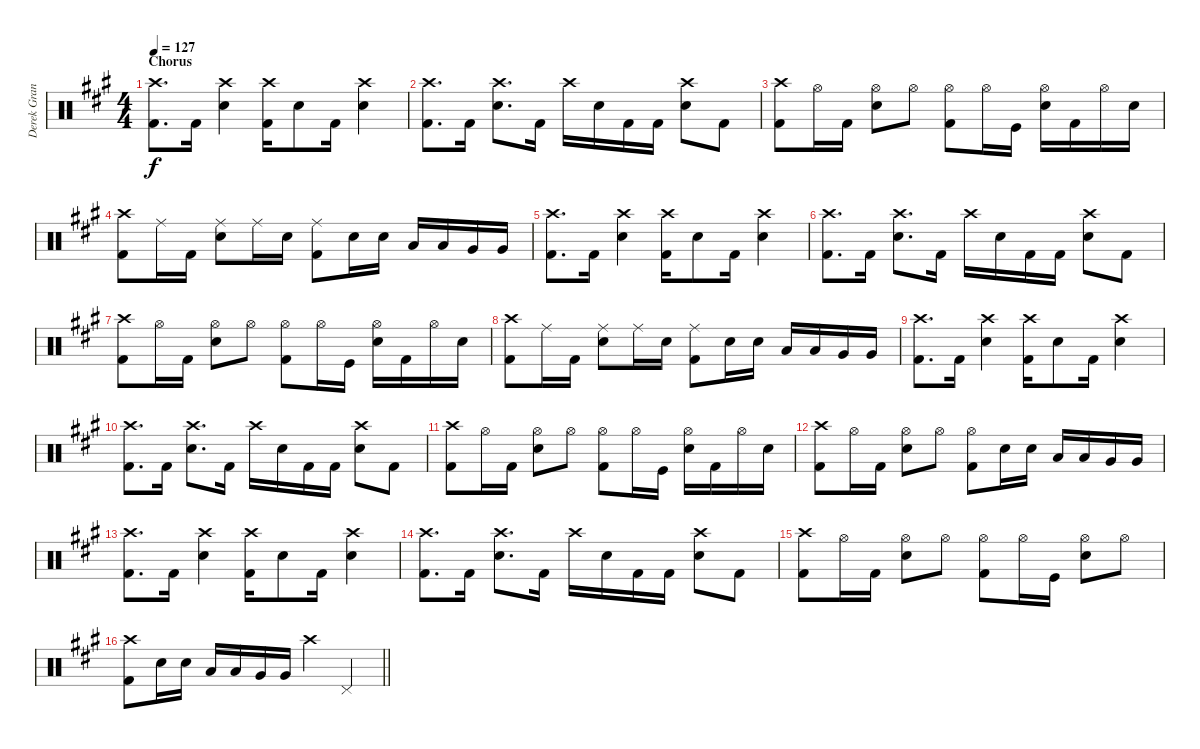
\track ("Derek Grant - Drums" "Derek Gran") {instrument percussion}
\staff {score}
\articulation defaults
\ts (4 4)
\section ("" "Chorus")
\tempo 127
\clef neutral
\ks a
("Crash high (hit)" "Kick (hit) 2").8{d dy f} "Kick (hit) 2".16 ("Snare (hit) 2" "Crash high (hit)").4 ("Crash high (hit)" "Kick (hit) 2").16 "Snare (hit) 2".8 "Kick (hit) 2".16 ("Snare (hit) 2" "Crash high (hit)").4 |
("Crash high (hit)" "Kick (hit) 2").8{d} "Kick (hit) 2".16 ("Snare (hit) 2" "Crash high (hit)").8{d} "Kick (hit) 2".16 "Crash high (hit)".16 "Snare (hit) 2".16 "Kick (hit) 2".16 "Kick (hit) 2".16 ("Snare (hit) 2" "Crash high (hit)").8 "Kick (hit) 2".8 |
("Crash high (hit)" "Kick (hit) 2").8 "Hi-Hat (open)".16 "Kick (hit) 2".16 ("Snare (hit) 2" "Hi-Hat (open)").8 "Hi-Hat (open)".8 ("Hi-Hat (open)" "Kick (hit) 2").8 "Hi-Hat (open)".16 "Kick (hit)".16 ("Hi-Hat (open)" "Snare (hit) 2").16 "Kick (hit) 2".16 "Hi-Hat (open)".16 "Snare (hit) 2".16 |
("Crash high (hit)" "Kick (hit) 2").8 "Ride (middle)".16 "Kick (hit) 2".16 ("Snare (hit) 2" "Ride (middle)").8 "Ride (middle)".16 "Snare (hit) 2".16 ("Ride (middle)" "Kick (hit) 2").8 "Snare (hit) 2".16 "Snare (hit) 2".16 "Low Tom (hit)".16 "Low Tom (hit)".16 "Very Low Tom (hit)".16 "Very Low Tom (hit)".16 |
("Crash high (hit)" "Kick (hit) 2").8{d} "Kick (hit) 2".16 ("Snare (hit) 2" "Crash high (hit)").4 ("Crash high (hit)" "Kick (hit) 2").16 "Snare (hit) 2".8 "Kick (hit) 2".16 ("Snare (hit) 2" "Crash high (hit)").4 |
("Crash high (hit)" "Kick (hit) 2").8{d} "Kick (hit) 2".16 ("Snare (hit) 2" "Crash high (hit)").8{d} "Kick (hit) 2".16 "Crash high (hit)".16 "Snare (hit) 2".16 "Kick (hit) 2".16 "Kick (hit) 2".16 ("Snare (hit) 2" "Crash high (hit)").8 "Kick (hit) 2".8 |
("Crash high (hit)" "Kick (hit) 2").8 "Hi-Hat (open)".16 "Kick (hit) 2".16 ("Snare (hit) 2" "Hi-Hat (open)").8 "Hi-Hat (open)".8 ("Hi-Hat (open)" "Kick (hit) 2").8 "Hi-Hat (open)".16 "Kick (hit)".16 ("Hi-Hat (open)" "Snare (hit) 2").16 "Kick (hit) 2".16 "Hi-Hat (open)".16 "Snare (hit) 2".16 |
("Crash high (hit)" "Kick (hit) 2").8 "Ride (middle)".16 "Kick (hit) 2".16 ("Snare (hit) 2" "Ride (middle)").8 "Ride (middle)".16 "Snare (hit) 2".16 ("Ride (middle)" "Kick (hit) 2").8 "Snare (hit) 2".16 "Snare (hit) 2".16 "Low Tom (hit)".16 "Low Tom (hit)".16 "Very Low Tom (hit)".16 "Very Low Tom (hit)".16 |
("Crash high (hit)" "Kick (hit) 2").8{d} "Kick (hit) 2".16 ("Snare (hit) 2" "Crash high (hit)").4 ("Crash high (hit)" "Kick (hit) 2").16 "Snare (hit) 2".8 "Kick (hit) 2".16 ("Snare (hit) 2" "Crash high (hit)").4 |
("Crash high (hit)" "Kick (hit) 2").8{d} "Kick (hit) 2".16 ("Snare (hit) 2" "Crash high (hit)").8{d} "Kick (hit) 2".16 "Crash high (hit)".16 "Snare (hit) 2".16 "Kick (hit) 2".16 "Kick (hit) 2".16 ("Snare (hit) 2" "Crash high (hit)").8 "Kick (hit) 2".8 |
("Crash high (hit)" "Kick (hit) 2").8 "Hi-Hat (open)".16 "Kick (hit) 2".16 ("Snare (hit) 2" "Hi-Hat (open)").8 "Hi-Hat (open)".8 ("Hi-Hat (open)" "Kick (hit) 2").8 "Hi-Hat (open)".16 "Kick (hit)".16 ("Hi-Hat (open)" "Snare (hit) 2").16 "Kick (hit) 2".16 "Hi-Hat (open)".16 "Snare (hit) 2".16 |
("Crash high (hit)" "Kick (hit) 2").8 "Hi-Hat (open)".16 "Kick (hit) 2".16 ("Snare (hit) 2" "Hi-Hat (open)").8 "Hi-Hat (open)".8 ("Hi-Hat (open)" "Kick (hit) 2").8 "Snare (hit) 2".16 "Snare (hit) 2".16 "Low Tom (hit)".16 "Low Tom (hit)".16 "Very Low Tom (hit)".16 "Very Low Tom (hit)".16 |
("Crash high (hit)" "Kick (hit) 2").8{d} "Kick (hit) 2".16 ("Snare (hit) 2" "Crash high (hit)").4 ("Crash high (hit)" "Kick (hit) 2").16 "Snare (hit) 2".8 "Kick (hit) 2".16 ("Snare (hit) 2" "Crash high (hit)").4 |
("Crash high (hit)" "Kick (hit) 2").8{d} "Kick (hit) 2".16 ("Snare (hit) 2" "Crash high (hit)").8{d} "Kick (hit) 2".16 "Crash high (hit)".16 "Snare (hit) 2".16 "Kick (hit) 2".16 "Kick (hit) 2".16 ("Snare (hit) 2" "Crash high (hit)").8 "Kick (hit) 2".8 |
("Crash high (hit)" "Kick (hit) 2").8 "Hi-Hat (open)".16 "Kick (hit) 2".16 ("Snare (hit) 2" "Hi-Hat (open)").8 "Hi-Hat (open)".8 ("Hi-Hat (open)" "Kick (hit) 2").8 "Hi-Hat (open)".16 "Kick (hit)".16 ("Hi-Hat (open)" "Snare (hit) 2").8 "Hi-Hat (open)".8 |
\barLineRight lightlight
("Crash high (hit)" "Kick (hit) 2").8 "Snare (hit) 2".16 "Snare (hit) 2".16 "Low Tom (hit)".16 "Low Tom (hit)".16 "Very Low Tom (hit)".16 "Very Low Tom (hit)".16 "Crash high (hit)".4 "Pedal Hi-Hat (hit)".4
